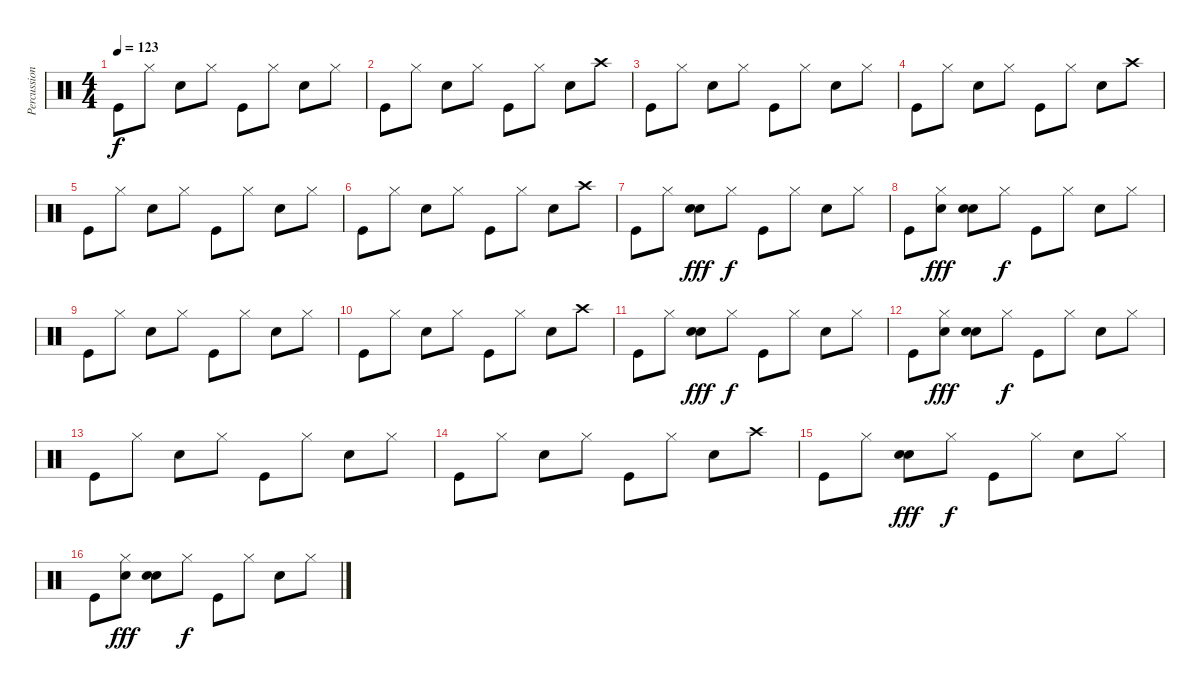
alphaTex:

\track ("Percussion" "Percussion") {instrument percussion}
\staff {score}
\articulation defaults
\ts (4 4)
\tempo 123
\clef neutral
\ks c "Kick (hit)".8{dy f} "Hi-Hat (closed)".8 "Snare (hit) 2".8 "Hi-Hat (closed)".8 "Kick (hit)".8 "Hi-Hat (closed)".8 "Snare (hit) 2".8 "Hi-Hat (closed)".8
|
"Kick (hit)".8 "Hi-Hat (closed)".8 "Snare (hit) 2".8 "Hi-Hat (closed)".8 "Kick (hit)".8 "Hi-Hat (closed)".8 "Snare (hit) 2".8 "Crash high (hit)".8 |
"Kick (hit)".8 "Hi-Hat (closed)".8 "Snare (hit) 2".8 "Hi-Hat (closed)".8 "Kick (hit)".8 "Hi-Hat (closed)".8 "Snare (hit) 2".8 "Hi-Hat (closed)".8 |
"Kick (hit)".8 "Hi-Hat (closed)".8 "Snare (hit) 2".8 "Hi-Hat (closed)".8 "Kick (hit)".8 "Hi-Hat (closed)".8 "Snare (hit) 2".8 "Crash high (hit)".8 |
"Kick (hit)".8 "Hi-Hat (closed)".8 "Snare (hit) 2".8 "Hi-Hat (closed)".8 "Kick (hit)".8 "Hi-Hat (closed)".8 "Snare (hit) 2".8 "Hi-Hat (closed)".8 |
"Kick (hit)".8 "Hi-Hat (closed)".8 "Snare (hit) 2".8 "Hi-Hat (closed)".8 "Kick (hit)".8 "Hi-Hat (closed)".8 "Snare (hit) 2".8 "Crash high (hit)".8 |
"Kick (hit)".8 "Hi-Hat (closed)".8 ("Hand Clap (hit)" "Snare (hit) 2").8{dy fff} "Hi-Hat (closed)".8{dy f} "Kick (hit)".8 "Hi-Hat (closed)".8 "Snare (hit) 2".8 "Hi-Hat (closed)".8 |
"Kick (hit)".8 ("Hi-Hat (closed)" "Hand Clap (hit)").8{dy fff} ("Hand Clap (hit)" "Snare (hit) 2").8 "Hi-Hat (closed)".8{dy f} "Kick (hit)".8 "Hi-Hat (closed)".8 "Snare (hit) 2".8 "Hi-Hat (closed)".8 |
"Kick (hit)".8 "Hi-Hat (closed)".8 "Snare (hit) 2".8 "Hi-Hat (closed)".8 "Kick (hit)".8 "Hi-Hat (closed)".8 "Snare (hit) 2".8 "Hi-Hat (closed)".8 |
"Kick (hit)".8 "Hi-Hat (closed)".8 "Snare (hit) 2".8 "Hi-Hat (closed)".8 "Kick (hit)".8 "Hi-Hat (closed)".8 "Snare (hit) 2".8 "Crash high (hit)".8 |
"Kick (hit)".8 "Hi-Hat (closed)".8 ("Hand Clap (hit)" "Snare (hit) 2").8{dy fff} "Hi-Hat (closed)".8{dy f} "Kick (hit)".8 "Hi-Hat (closed)".8 "Snare (hit) 2".8 "Hi-Hat (closed)".8 |
"Kick (hit)".8 ("Hi-Hat (closed)" "Hand Clap (hit)").8{dy fff} ("Hand Clap (hit)" "Snare (hit) 2").8 "Hi-Hat (closed)".8{dy f} "Kick (hit)".8 "Hi-Hat (closed)".8 "Snare (hit) 2".8 "Hi-Hat (closed)".8 |
"Kick (hit)".8 "Hi-Hat (closed)".8 "Snare (hit) 2".8 "Hi-Hat (closed)".8 "Kick (hit)".8 "Hi-Hat (closed)".8 "Snare (hit) 2".8 "Hi-Hat (closed)".8 |
"Kick (hit)".8 "Hi-Hat (closed)".8 "Snare (hit) 2".8 "Hi-Hat (closed)".8 "Kick (hit)".8 "Hi-Hat (closed)".8 "Snare (hit) 2".8 "Crash high (hit)".8 |
"Kick (hit)".8 "Hi-Hat (closed)".8 ("Hand Clap (hit)" "Snare (hit) 2").8{dy fff} "Hi-Hat (closed)".8{dy f} "Kick (hit)".8 "Hi-Hat (closed)".8 "Snare (hit) 2".8 "Hi-Hat (closed)".8 |
"Kick (hit)".8 ("Hi-Hat (closed)" "Hand Clap (hit)").8{dy fff} ("Hand Clap (hit)" "Snare (hit) 2").8 "Hi-Hat (closed)".8{dy f} "Kick (hit)".8 "Hi-Hat (closed)".8 "Snare (hit) 2".8 "Hi-Hat (closed)".8
